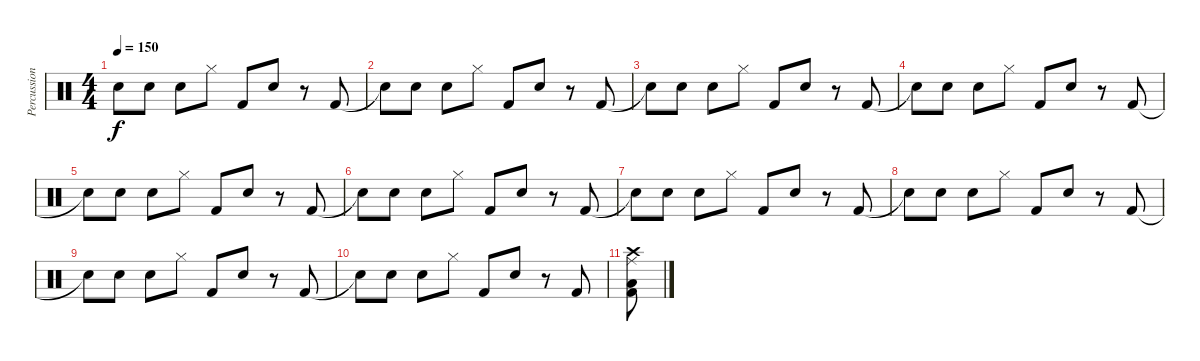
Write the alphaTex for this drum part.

\track ("Percussion" "Percussion") {instrument percussion}
\staff {score}
\articulation defaults
\ts (4 4)
\tempo 150
\clef neutral
\ks c "Snare (hit)"{t}.8{dy f} "Electric Snare (hit)".8 "Electric Snare (hit)".8 "Hi-Hat (closed)".8 "Kick (hit) 2".8 "Electric Snare (hit)".8
r.8 "Kick (hit) 2".8 |
"Snare (hit)"{t}.8 "Electric Snare (hit)".8 "Electric Snare (hit)".8 "Hi-Hat (closed)".8 "Kick (hit) 2".8 "Electric Snare (hit)".8 r.8 "Kick (hit) 2".8 |
"Snare (hit)"{t}.8 "Electric Snare (hit)".8 "Electric Snare (hit)".8 "Hi-Hat (closed)".8 "Kick (hit) 2".8 "Electric Snare (hit)".8 r.8 "Kick (hit) 2".8 |
"Snare (hit)"{t}.8 "Electric Snare (hit)".8 "Electric Snare (hit)".8 "Hi-Hat (closed)".8 "Kick (hit) 2".8 "Electric Snare (hit)".8 r.8 "Kick (hit) 2".8 |
"Snare (hit)"{t}.8 "Electric Snare (hit)".8 "Electric Snare (hit)".8 "Hi-Hat (closed)".8 "Kick (hit) 2".8 "Electric Snare (hit)".8 r.8 "Kick (hit) 2".8 |
"Snare (hit)"{t}.8 "Electric Snare (hit)".8 "Electric Snare (hit)".8 "Hi-Hat (closed)".8 "Kick (hit) 2".8 "Electric Snare (hit)".8 r.8 "Kick (hit) 2".8 |
"Snare (hit)"{t}.8 "Electric Snare (hit)".8 "Electric Snare (hit)".8 "Hi-Hat (closed)".8 "Kick (hit) 2".8 "Electric Snare (hit)".8 r.8 "Kick (hit) 2".8 |
"Snare (hit)"{t}.8 "Electric Snare (hit)".8 "Electric Snare (hit)".8 "Hi-Hat (closed)".8 "Kick (hit) 2".8 "Electric Snare (hit)".8 r.8 "Kick (hit) 2".8 |
"Snare (hit)"{t}.8 "Electric Snare (hit)".8 "Electric Snare (hit)".8 "Hi-Hat (closed)".8 "Kick (hit) 2".8 "Electric Snare (hit)".8 r.8 "Kick (hit) 2".8 |
"Snare (hit)"{t}.8 "Electric Snare (hit)".8 "Electric Snare (hit)".8 "Hi-Hat (closed)".8 "Kick (hit) 2".8 "Electric Snare (hit)".8 r.8 "Kick (hit) 2".8 |
("Ride (middle)" "Low Floor Tom (hit)" "Kick (hit) 2" "Crash high (hit)").8
